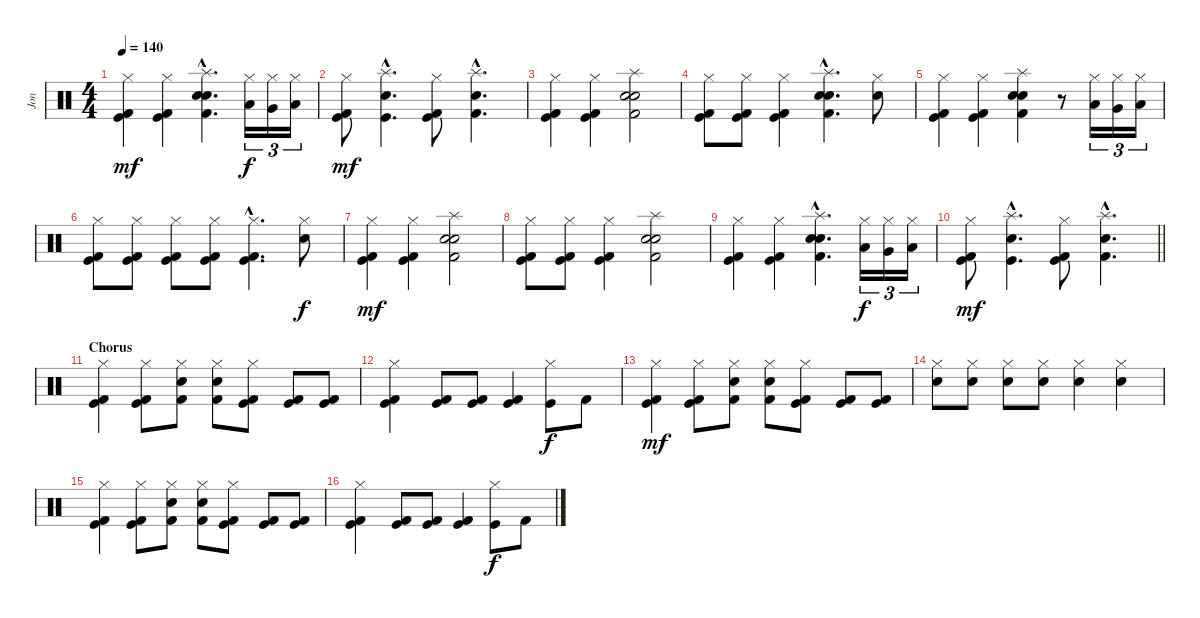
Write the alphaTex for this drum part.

\track ("Jon" "Jon") {instrument percussion}
\staff {score}
\articulation defaults
\ts (4 4)
\tempo 140
\clef neutral
\ks c
("Kick (hit) 2" "Kick (hit)" "Hi-Hat (closed)").4{dy mf} ("Kick (hit) 2" "Kick (hit)" "Hi-Hat (closed)").4 ("Electric Snare (hit)"{hac} "Electric Snare (hit)"{hac} "Splash (hit)"{hac} "Kick (hit) 2"{hac}).4{d} ("Low Tom (hit)" "Hi-Hat (closed)").16{tu (3 2) dy f} ("Very Low Tom (hit)" "Hi-Hat (closed)").16{tu (3 2)} ("Low Floor Tom (hit)" "Hi-Hat (closed)").16{tu (3 2)} |
("Kick (hit)" "Kick (hit) 2" "Hi-Hat (closed)").8{dy mf} ("Electric Snare (hit)"{hac} "Kick (hit)"{hac} "Splash (hit)"{hac}).4{d} ("Kick (hit)" "Kick (hit) 2" "Hi-Hat (closed)").8 ("Electric Snare (hit)"{hac} "Kick (hit) 2"{hac} "Splash (hit)"{hac}).4{d} |
("Kick (hit)" "Hi-Hat (closed)" "Kick (hit) 2").4 ("Kick (hit)" "Hi-Hat (closed)" "Kick (hit) 2").4 ("Electric Snare (hit)" "Electric Snare (hit)" "Splash (hit)" "Kick (hit) 2").2 |
("Kick (hit) 2" "Kick (hit)" "Hi-Hat (closed)").8 ("Kick (hit) 2" "Kick (hit)" "Hi-Hat (closed)").8 ("Kick (hit) 2" "Kick (hit)" "Hi-Hat (closed)").4 ("Electric Snare (hit)"{hac} "Electric Snare (hit)"{hac} "Splash (hit)"{hac} "Kick (hit) 2"{hac}).4{d} ("Electric Snare (hit)" "Hi-Hat (closed)").8 |
("Kick (hit) 2" "Kick (hit)" "Hi-Hat (closed)").4 ("Kick (hit) 2" "Kick (hit)" "Hi-Hat (closed)").4 ("Electric Snare (hit)" "Electric Snare (hit)" "Splash (hit)" "Kick (hit) 2").4 r.8 ("Low Tom (hit)" "Hi-Hat (closed)").16{tu (3 2)} ("Very Low Tom (hit)" "Hi-Hat (closed)").16{tu (3 2)} ("Low Floor Tom (hit)" "Hi-Hat (closed)").16{tu (3 2)} |
("Kick (hit) 2" "Kick (hit)" "Hi-Hat (closed)").8 ("Kick (hit) 2" "Kick (hit)" "Hi-Hat (closed)").8 ("Kick (hit) 2" "Kick (hit)" "Hi-Hat (closed)").8 ("Kick (hit) 2" "Kick (hit)" "Hi-Hat (closed)").8 ("Kick (hit) 2"{hac} "Kick (hit)"{hac} "Hi-Hat (closed)"{hac}).4{d} ("Electric Snare (hit)" "Hi-Hat (closed)").8{dy f} |
("Kick (hit) 2" "Kick (hit)" "Hi-Hat (closed)").4{dy mf} ("Kick (hit) 2" "Kick (hit)" "Hi-Hat (closed)").4 ("Electric Snare (hit)" "Electric Snare (hit)" "Splash (hit)" "Kick (hit) 2").2 |
("Kick (hit) 2" "Kick (hit)" "Hi-Hat (closed)").8 ("Kick (hit) 2" "Kick (hit)" "Hi-Hat (closed)").8 ("Kick (hit) 2" "Kick (hit)" "Hi-Hat (closed)").4 ("Electric Snare (hit)" "Electric Snare (hit)" "Splash (hit)" "Kick (hit) 2").2 |
("Kick (hit) 2" "Kick (hit)" "Hi-Hat (closed)").4 ("Kick (hit) 2" "Kick (hit)" "Hi-Hat (closed)").4 ("Electric Snare (hit)"{hac} "Electric Snare (hit)"{hac} "Splash (hit)"{hac} "Kick (hit) 2"{hac}).4{d} ("Low Tom (hit)" "Hi-Hat (closed)").16{tu (3 2) dy f} ("Very Low Tom (hit)" "Hi-Hat (closed)").16{tu (3 2)} ("Low Floor Tom (hit)" "Hi-Hat (closed)").16{tu (3 2)} |
\barLineRight lightlight
("Kick (hit)" "Kick (hit) 2" "Hi-Hat (closed)").8{dy mf} ("Electric Snare (hit)"{hac} "Kick (hit)"{hac} "Splash (hit)"{hac}).4{d} ("Kick (hit)" "Kick (hit) 2" "Hi-Hat (closed)").8 ("Electric Snare (hit)"{hac} "Kick (hit) 2"{hac} "Splash (hit)"{hac}).4{d} |
\section ("" "Chorus")
("Kick (hit)" "Kick (hit) 2" "Hi-Hat (closed)").4 ("Kick (hit)" "Kick (hit) 2" "Hi-Hat (closed)").8 ("Snare (hit) 2" "Kick (hit) 2" "Hi-Hat (closed)").8 ("Electric Snare (hit)" "Kick (hit) 2" "Hi-Hat (closed)").8 ("Kick (hit)" "Kick (hit) 2" "Hi-Hat (closed)").8 ("Kick (hit)" "Kick (hit) 2").8 ("Kick (hit)" "Kick (hit) 2").8 |
("Kick (hit)" "Kick (hit) 2" "Hi-Hat (closed)").4 ("Kick (hit)" "Kick (hit) 2").8 ("Kick (hit)" "Kick (hit) 2").8 ("Kick (hit)" "Kick (hit) 2").4 ("Kick (hit)" "Hi-Hat (closed)").8{dy f} "Kick (hit) 2".8 |
("Kick (hit)" "Kick (hit) 2" "Hi-Hat (closed)").4{dy mf} ("Kick (hit)" "Kick (hit) 2" "Hi-Hat (closed)").8 ("Snare (hit) 2" "Kick (hit) 2" "Hi-Hat (closed)").8 ("Electric Snare (hit)" "Kick (hit) 2" "Hi-Hat (closed)").8 ("Kick (hit)" "Kick (hit) 2" "Hi-Hat (closed)").8 ("Kick (hit)" "Kick (hit) 2").8 ("Kick (hit)" "Kick (hit) 2").8 |
("Electric Snare (hit)" "Hi-Hat (closed)").8 ("Electric Snare (hit)" "Hi-Hat (closed)").8 ("Electric Snare (hit)" "Hi-Hat (closed)").8 ("Electric Snare (hit)" "Hi-Hat (closed)").8 ("Electric Snare (hit)" "Hi-Hat (closed)").4 ("Electric Snare (hit)" "Hi-Hat (closed)").4 |
("Kick (hit)" "Kick (hit) 2" "Hi-Hat (closed)").4 ("Kick (hit)" "Kick (hit) 2" "Hi-Hat (closed)").8 ("Snare (hit) 2" "Kick (hit) 2" "Hi-Hat (closed)").8 ("Electric Snare (hit)" "Kick (hit) 2" "Hi-Hat (closed)").8 ("Kick (hit)" "Kick (hit) 2" "Hi-Hat (closed)").8 ("Kick (hit)" "Kick (hit) 2").8 ("Kick (hit)" "Kick (hit) 2").8 |
("Kick (hit)" "Kick (hit) 2" "Hi-Hat (closed)").4 ("Kick (hit)" "Kick (hit) 2").8 ("Kick (hit)" "Kick (hit) 2").8 ("Kick (hit)" "Kick (hit) 2").4 ("Kick (hit)" "Hi-Hat (closed)").8{dy f} "Kick (hit) 2".8
